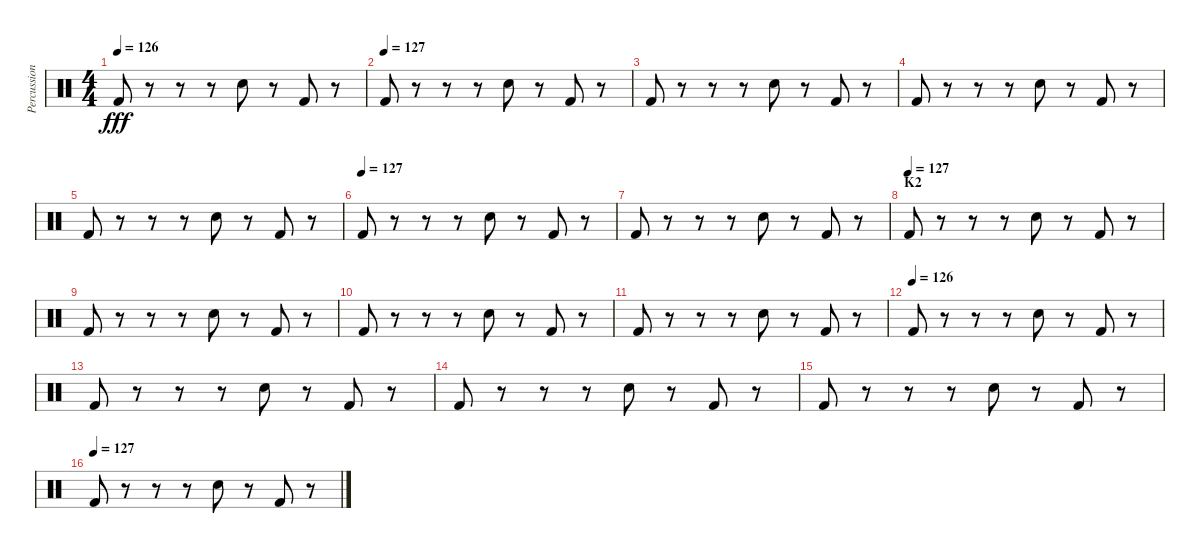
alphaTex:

\track ("Percussion" "Percussion") {instrument percussion}
\staff {score}
\articulation defaults
\ts (4 4)
\tempo 126
\clef neutral
\ks c "Kick (hit) 2".8{dy fff}
r.8 r.8 r.8 "Electric Snare (hit)".8 r.8 "Kick (hit) 2".8 r.8 |
\tempo (127)
"Kick (hit) 2".8 r.8 r.8 r.8 "Electric Snare (hit)".8 r.8 "Kick (hit) 2".8 r.8 |
"Kick (hit) 2".8 r.8 r.8 r.8 "Electric Snare (hit)".8 r.8 "Kick (hit) 2".8 r.8 |
"Kick (hit) 2".8 r.8 r.8 r.8 "Electric Snare (hit)".8 r.8 "Kick (hit) 2".8 r.8 |
"Kick (hit) 2".8 r.8 r.8 r.8 "Electric Snare (hit)".8 r.8 "Kick (hit) 2".8 r.8 |
\tempo (127)
"Kick (hit) 2".8 r.8 r.8 r.8 "Electric Snare (hit)".8 r.8 "Kick (hit) 2".8 r.8 |
"Kick (hit) 2".8 r.8 r.8 r.8 "Electric Snare (hit)".8 r.8 "Kick (hit) 2".8 r.8 |
\section ("" "K2")
\tempo (127)
"Kick (hit) 2".8 r.8 r.8 r.8 "Electric Snare (hit)".8 r.8 "Kick (hit) 2".8 r.8 |
"Kick (hit) 2".8 r.8 r.8 r.8 "Electric Snare (hit)".8 r.8 "Kick (hit) 2".8 r.8 |
"Kick (hit) 2".8 r.8 r.8 r.8 "Electric Snare (hit)".8 r.8 "Kick (hit) 2".8 r.8 |
"Kick (hit) 2".8 r.8 r.8 r.8 "Electric Snare (hit)".8 r.8 "Kick (hit) 2".8 r.8 |
\tempo (126)
"Kick (hit) 2".8 r.8 r.8 r.8 "Electric Snare (hit)".8 r.8 "Kick (hit) 2".8 r.8 |
"Kick (hit) 2".8 r.8 r.8 r.8 "Electric Snare (hit)".8 r.8 "Kick (hit) 2".8 r.8 |
"Kick (hit) 2".8 r.8 r.8 r.8 "Electric Snare (hit)".8 r.8 "Kick (hit) 2".8 r.8 |
"Kick (hit) 2".8 r.8 r.8 r.8 "Electric Snare (hit)".8 r.8 "Kick (hit) 2".8 r.8 |
\tempo (127)
"Kick (hit) 2".8 r.8 r.8 r.8 "Electric Snare (hit)".8 r.8 "Kick (hit) 2".8 r.8
